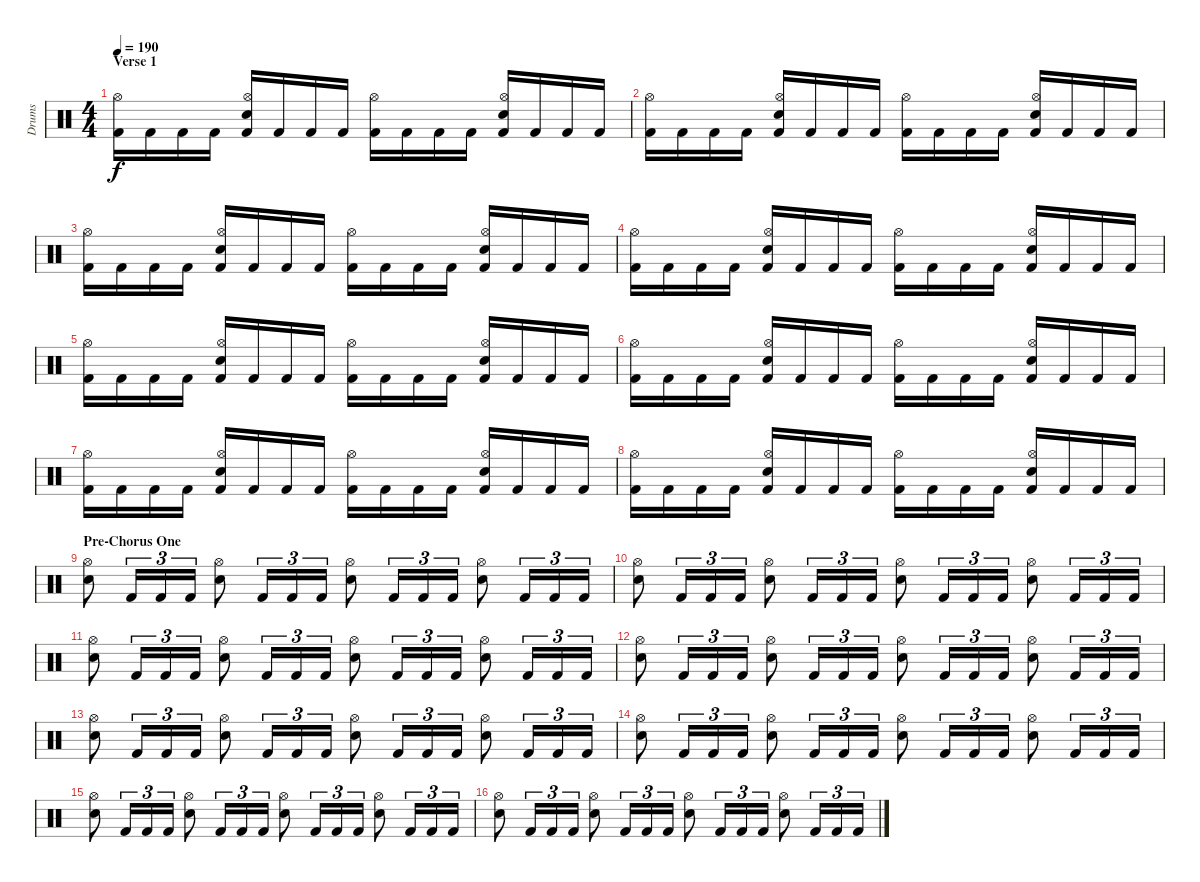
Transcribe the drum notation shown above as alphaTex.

\track ("Drums" "Drums") {instrument percussion}
\staff {score}
\articulation defaults
\ts (4 4)
\section ("" "Verse 1")
\tempo 190
\clef neutral
\ks c
("Kick (hit) 2" "Hi-Hat (open)").16{dy f} "Kick (hit) 2".16 "Kick (hit) 2".16 "Kick (hit) 2".16 ("Kick (hit) 2" "Hi-Hat (open)" "Electric Snare (hit)").16 "Kick (hit) 2".16 "Kick (hit) 2".16 "Kick (hit) 2".16 ("Kick (hit) 2" "Hi-Hat (open)").16 "Kick (hit) 2".16 "Kick (hit) 2".16 "Kick (hit) 2".16 ("Kick (hit) 2" "Hi-Hat (open)" "Electric Snare (hit)").16 "Kick (hit) 2".16 "Kick (hit) 2".16 "Kick (hit) 2".16 |
("Kick (hit) 2" "Hi-Hat (open)").16 "Kick (hit) 2".16 "Kick (hit) 2".16 "Kick (hit) 2".16 ("Kick (hit) 2" "Hi-Hat (open)" "Electric Snare (hit)").16 "Kick (hit) 2".16 "Kick (hit) 2".16 "Kick (hit) 2".16 ("Kick (hit) 2" "Hi-Hat (open)").16 "Kick (hit) 2".16 "Kick (hit) 2".16 "Kick (hit) 2".16 ("Kick (hit) 2" "Hi-Hat (open)" "Electric Snare (hit)").16 "Kick (hit) 2".16 "Kick (hit) 2".16 "Kick (hit) 2".16 |
("Kick (hit) 2" "Hi-Hat (open)").16 "Kick (hit) 2".16 "Kick (hit) 2".16 "Kick (hit) 2".16 ("Kick (hit) 2" "Hi-Hat (open)" "Electric Snare (hit)").16 "Kick (hit) 2".16 "Kick (hit) 2".16 "Kick (hit) 2".16 ("Kick (hit) 2" "Hi-Hat (open)").16 "Kick (hit) 2".16 "Kick (hit) 2".16 "Kick (hit) 2".16 ("Kick (hit) 2" "Hi-Hat (open)" "Electric Snare (hit)").16 "Kick (hit) 2".16 "Kick (hit) 2".16 "Kick (hit) 2".16 |
("Kick (hit) 2" "Hi-Hat (open)").16 "Kick (hit) 2".16 "Kick (hit) 2".16 "Kick (hit) 2".16 ("Kick (hit) 2" "Hi-Hat (open)" "Electric Snare (hit)").16 "Kick (hit) 2".16 "Kick (hit) 2".16 "Kick (hit) 2".16 ("Kick (hit) 2" "Hi-Hat (open)").16 "Kick (hit) 2".16 "Kick (hit) 2".16 "Kick (hit) 2".16 ("Kick (hit) 2" "Hi-Hat (open)" "Electric Snare (hit)").16 "Kick (hit) 2".16 "Kick (hit) 2".16 "Kick (hit) 2".16 |
("Kick (hit) 2" "Hi-Hat (open)").16 "Kick (hit) 2".16 "Kick (hit) 2".16 "Kick (hit) 2".16 ("Kick (hit) 2" "Hi-Hat (open)" "Electric Snare (hit)").16 "Kick (hit) 2".16 "Kick (hit) 2".16 "Kick (hit) 2".16 ("Kick (hit) 2" "Hi-Hat (open)").16 "Kick (hit) 2".16 "Kick (hit) 2".16 "Kick (hit) 2".16 ("Kick (hit) 2" "Hi-Hat (open)" "Electric Snare (hit)").16 "Kick (hit) 2".16 "Kick (hit) 2".16 "Kick (hit) 2".16 |
("Kick (hit) 2" "Hi-Hat (open)").16 "Kick (hit) 2".16 "Kick (hit) 2".16 "Kick (hit) 2".16 ("Kick (hit) 2" "Hi-Hat (open)" "Electric Snare (hit)").16 "Kick (hit) 2".16 "Kick (hit) 2".16 "Kick (hit) 2".16 ("Kick (hit) 2" "Hi-Hat (open)").16 "Kick (hit) 2".16 "Kick (hit) 2".16 "Kick (hit) 2".16 ("Kick (hit) 2" "Hi-Hat (open)" "Electric Snare (hit)").16 "Kick (hit) 2".16 "Kick (hit) 2".16 "Kick (hit) 2".16 |
("Kick (hit) 2" "Hi-Hat (open)").16 "Kick (hit) 2".16 "Kick (hit) 2".16 "Kick (hit) 2".16 ("Kick (hit) 2" "Hi-Hat (open)" "Electric Snare (hit)").16 "Kick (hit) 2".16 "Kick (hit) 2".16 "Kick (hit) 2".16 ("Kick (hit) 2" "Hi-Hat (open)").16 "Kick (hit) 2".16 "Kick (hit) 2".16 "Kick (hit) 2".16 ("Kick (hit) 2" "Hi-Hat (open)" "Electric Snare (hit)").16 "Kick (hit) 2".16 "Kick (hit) 2".16 "Kick (hit) 2".16 |
("Kick (hit) 2" "Hi-Hat (open)").16 "Kick (hit) 2".16 "Kick (hit) 2".16 "Kick (hit) 2".16 ("Kick (hit) 2" "Hi-Hat (open)" "Electric Snare (hit)").16 "Kick (hit) 2".16 "Kick (hit) 2".16 "Kick (hit) 2".16 ("Kick (hit) 2" "Hi-Hat (open)").16 "Kick (hit) 2".16 "Kick (hit) 2".16 "Kick (hit) 2".16 ("Kick (hit) 2" "Hi-Hat (open)" "Electric Snare (hit)").16 "Kick (hit) 2".16 "Kick (hit) 2".16 "Kick (hit) 2".16 |
\section ("" "Pre-Chorus One")
("Hi-Hat (open)" "Electric Snare (hit)").8 "Kick (hit) 2".16{tu (3 2)} "Kick (hit) 2".16{tu (3 2)} "Kick (hit) 2".16{tu (3 2)} ("Hi-Hat (open)" "Electric Snare (hit)").8 "Kick (hit) 2".16{tu (3 2)} "Kick (hit) 2".16{tu (3 2)} "Kick (hit) 2".16{tu (3 2)} ("Hi-Hat (open)" "Electric Snare (hit)").8 "Kick (hit) 2".16{tu (3 2)} "Kick (hit) 2".16{tu (3 2)} "Kick (hit) 2".16{tu (3 2)} ("Hi-Hat (open)" "Electric Snare (hit)").8 "Kick (hit) 2".16{tu (3 2)} "Kick (hit) 2".16{tu (3 2)} "Kick (hit) 2".16{tu (3 2)} |
("Hi-Hat (open)" "Electric Snare (hit)").8 "Kick (hit) 2".16{tu (3 2)} "Kick (hit) 2".16{tu (3 2)} "Kick (hit) 2".16{tu (3 2)} ("Hi-Hat (open)" "Electric Snare (hit)").8 "Kick (hit) 2".16{tu (3 2)} "Kick (hit) 2".16{tu (3 2)} "Kick (hit) 2".16{tu (3 2)} ("Hi-Hat (open)" "Electric Snare (hit)").8 "Kick (hit) 2".16{tu (3 2)} "Kick (hit) 2".16{tu (3 2)} "Kick (hit) 2".16{tu (3 2)} ("Hi-Hat (open)" "Electric Snare (hit)").8 "Kick (hit) 2".16{tu (3 2)} "Kick (hit) 2".16{tu (3 2)} "Kick (hit) 2".16{tu (3 2)} |
("Hi-Hat (open)" "Electric Snare (hit)").8 "Kick (hit) 2".16{tu (3 2)} "Kick (hit) 2".16{tu (3 2)} "Kick (hit) 2".16{tu (3 2)} ("Hi-Hat (open)" "Electric Snare (hit)").8 "Kick (hit) 2".16{tu (3 2)} "Kick (hit) 2".16{tu (3 2)} "Kick (hit) 2".16{tu (3 2)} ("Hi-Hat (open)" "Electric Snare (hit)").8 "Kick (hit) 2".16{tu (3 2)} "Kick (hit) 2".16{tu (3 2)} "Kick (hit) 2".16{tu (3 2)} ("Hi-Hat (open)" "Electric Snare (hit)").8 "Kick (hit) 2".16{tu (3 2)} "Kick (hit) 2".16{tu (3 2)} "Kick (hit) 2".16{tu (3 2)} |
("Hi-Hat (open)" "Electric Snare (hit)").8 "Kick (hit) 2".16{tu (3 2)} "Kick (hit) 2".16{tu (3 2)} "Kick (hit) 2".16{tu (3 2)} ("Hi-Hat (open)" "Electric Snare (hit)").8 "Kick (hit) 2".16{tu (3 2)} "Kick (hit) 2".16{tu (3 2)} "Kick (hit) 2".16{tu (3 2)} ("Hi-Hat (open)" "Electric Snare (hit)").8 "Kick (hit) 2".16{tu (3 2)} "Kick (hit) 2".16{tu (3 2)} "Kick (hit) 2".16{tu (3 2)} ("Hi-Hat (open)" "Electric Snare (hit)").8 "Kick (hit) 2".16{tu (3 2)} "Kick (hit) 2".16{tu (3 2)} "Kick (hit) 2".16{tu (3 2)} |
("Hi-Hat (open)" "Electric Snare (hit)").8 "Kick (hit) 2".16{tu (3 2)} "Kick (hit) 2".16{tu (3 2)} "Kick (hit) 2".16{tu (3 2)} ("Hi-Hat (open)" "Electric Snare (hit)").8 "Kick (hit) 2".16{tu (3 2)} "Kick (hit) 2".16{tu (3 2)} "Kick (hit) 2".16{tu (3 2)} ("Hi-Hat (open)" "Electric Snare (hit)").8 "Kick (hit) 2".16{tu (3 2)} "Kick (hit) 2".16{tu (3 2)} "Kick (hit) 2".16{tu (3 2)} ("Hi-Hat (open)" "Electric Snare (hit)").8 "Kick (hit) 2".16{tu (3 2)} "Kick (hit) 2".16{tu (3 2)} "Kick (hit) 2".16{tu (3 2)} |
("Hi-Hat (open)" "Electric Snare (hit)").8 "Kick (hit) 2".16{tu (3 2)} "Kick (hit) 2".16{tu (3 2)} "Kick (hit) 2".16{tu (3 2)} ("Hi-Hat (open)" "Electric Snare (hit)").8 "Kick (hit) 2".16{tu (3 2)} "Kick (hit) 2".16{tu (3 2)} "Kick (hit) 2".16{tu (3 2)} ("Hi-Hat (open)" "Electric Snare (hit)").8 "Kick (hit) 2".16{tu (3 2)} "Kick (hit) 2".16{tu (3 2)} "Kick (hit) 2".16{tu (3 2)} ("Hi-Hat (open)" "Electric Snare (hit)").8 "Kick (hit) 2".16{tu (3 2)} "Kick (hit) 2".16{tu (3 2)} "Kick (hit) 2".16{tu (3 2)} |
("Hi-Hat (open)" "Electric Snare (hit)").8 "Kick (hit) 2".16{tu (3 2)} "Kick (hit) 2".16{tu (3 2)} "Kick (hit) 2".16{tu (3 2)} ("Hi-Hat (open)" "Electric Snare (hit)").8 "Kick (hit) 2".16{tu (3 2)} "Kick (hit) 2".16{tu (3 2)} "Kick (hit) 2".16{tu (3 2)} ("Hi-Hat (open)" "Electric Snare (hit)").8 "Kick (hit) 2".16{tu (3 2)} "Kick (hit) 2".16{tu (3 2)} "Kick (hit) 2".16{tu (3 2)} ("Hi-Hat (open)" "Electric Snare (hit)").8 "Kick (hit) 2".16{tu (3 2)} "Kick (hit) 2".16{tu (3 2)} "Kick (hit) 2".16{tu (3 2)} |
("Hi-Hat (open)" "Electric Snare (hit)").8 "Kick (hit) 2".16{tu (3 2)} "Kick (hit) 2".16{tu (3 2)} "Kick (hit) 2".16{tu (3 2)} ("Hi-Hat (open)" "Electric Snare (hit)").8 "Kick (hit) 2".16{tu (3 2)} "Kick (hit) 2".16{tu (3 2)} "Kick (hit) 2".16{tu (3 2)} ("Hi-Hat (open)" "Electric Snare (hit)").8 "Kick (hit) 2".16{tu (3 2)} "Kick (hit) 2".16{tu (3 2)} "Kick (hit) 2".16{tu (3 2)} ("Hi-Hat (open)" "Electric Snare (hit)").8 "Kick (hit) 2".16{tu (3 2)} "Kick (hit) 2".16{tu (3 2)} "Kick (hit) 2".16{tu (3 2)}
